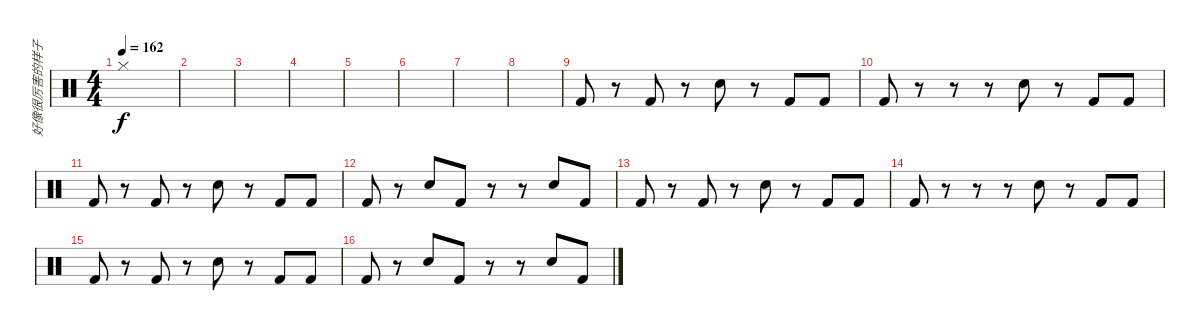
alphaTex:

\track ("好像很厉害的样子" "好像很厉害的样子") {instrument percussion}
\staff {score}
\articulation defaults
\ts (4 4)
\tempo 162
\clef neutral
\ks c "Hi-Hat (closed)".1{dy f}
|
|
|
|
|
|
|
|
"Kick (hit) 2".8 r.8 "Kick (hit) 2".8 r.8 "Snare (hit) 2".8 r.8 "Kick (hit) 2".8 "Kick (hit) 2".8 |
"Kick (hit) 2".8 r.8 r.8 r.8 "Snare (hit) 2".8 r.8 "Kick (hit) 2".8 "Kick (hit) 2".8 |
"Kick (hit) 2".8 r.8 "Kick (hit) 2".8 r.8 "Snare (hit) 2".8 r.8 "Kick (hit) 2".8 "Kick (hit) 2".8 |
"Kick (hit) 2".8 r.8 "Snare (hit) 2".8 "Kick (hit) 2".8 r.8 r.8 "Snare (hit) 2".8 "Kick (hit) 2".8 |
"Kick (hit) 2".8 r.8 "Kick (hit) 2".8 r.8 "Snare (hit) 2".8 r.8 "Kick (hit) 2".8 "Kick (hit) 2".8 |
"Kick (hit) 2".8 r.8 r.8 r.8 "Snare (hit) 2".8 r.8 "Kick (hit) 2".8 "Kick (hit) 2".8 |
"Kick (hit) 2".8 r.8 "Kick (hit) 2".8 r.8 "Snare (hit) 2".8 r.8 "Kick (hit) 2".8 "Kick (hit) 2".8 |
"Kick (hit) 2".8 r.8 "Snare (hit) 2".8 "Kick (hit) 2".8 r.8 r.8 "Snare (hit) 2".8 "Kick (hit) 2".8
